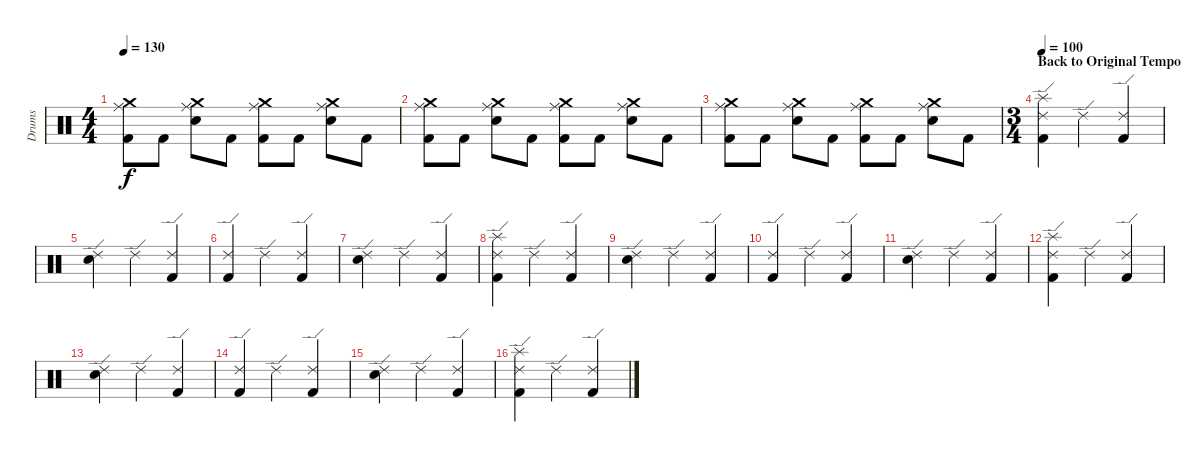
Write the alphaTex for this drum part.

\track ("Drums" "Drums") {instrument percussion}
\staff {score}
\articulation defaults
\ts (4 4)
\tempo 130
\clef neutral
\ks c
("Ride (middle)" "Crash medium (hit)" "Kick (hit) 2").8{dy f} "Kick (hit) 2".8 ("Ride (middle)" "Electric Snare (hit)" "Crash medium (hit)").8 "Kick (hit) 2".8 ("Ride (middle)" "Crash medium (hit)" "Kick (hit) 2").8 "Kick (hit) 2".8 ("Ride (middle)" "Electric Snare (hit)" "Crash medium (hit)").8 "Kick (hit) 2".8 |
("Ride (middle)" "Crash medium (hit)" "Kick (hit) 2").8 "Kick (hit) 2".8 ("Ride (middle)" "Electric Snare (hit)" "Crash medium (hit)").8 "Kick (hit) 2".8 ("Ride (middle)" "Crash medium (hit)" "Kick (hit) 2").8 "Kick (hit) 2".8 ("Ride (middle)" "Electric Snare (hit)" "Crash medium (hit)").8 "Kick (hit) 2".8 |
("Ride (middle)" "Crash medium (hit)" "Kick (hit) 2").8 "Kick (hit) 2".8 ("Ride (middle)" "Electric Snare (hit)" "Crash medium (hit)").8 "Kick (hit) 2".8 ("Ride (middle)" "Crash medium (hit)" "Kick (hit) 2").8 "Kick (hit) 2".8 ("Ride (middle)" "Electric Snare (hit)" "Crash medium (hit)").8 "Kick (hit) 2".8 |
\ts (3 4)
\section ("" "Back to Original Tempo")
\tempo 100
("Ride (edge) 2" "Splash (hit)" "Kick (hit) 2").4 "Ride (edge) 2".4 ("Ride (edge) 2" "Kick (hit) 2").4 |
("Ride (edge) 2" "Electric Snare (hit)").4 "Ride (edge) 2".4 ("Ride (edge) 2" "Kick (hit) 2").4 |
("Ride (edge) 2" "Kick (hit) 2").4 "Ride (edge) 2".4 ("Ride (edge) 2" "Kick (hit) 2").4 |
("Ride (edge) 2" "Electric Snare (hit)").4 "Ride (edge) 2".4 ("Ride (edge) 2" "Kick (hit) 2").4 |
("Ride (edge) 2" "Splash (hit)" "Kick (hit) 2").4 "Ride (edge) 2".4 ("Ride (edge) 2" "Kick (hit) 2").4 |
("Ride (edge) 2" "Electric Snare (hit)").4 "Ride (edge) 2".4 ("Ride (edge) 2" "Kick (hit) 2").4 |
("Ride (edge) 2" "Kick (hit) 2").4 "Ride (edge) 2".4 ("Ride (edge) 2" "Kick (hit) 2").4 |
("Ride (edge) 2" "Electric Snare (hit)").4 "Ride (edge) 2".4 ("Ride (edge) 2" "Kick (hit) 2").4 |
("Ride (edge) 2" "Splash (hit)" "Kick (hit) 2").4 "Ride (edge) 2".4 ("Ride (edge) 2" "Kick (hit) 2").4 |
("Ride (edge) 2" "Electric Snare (hit)").4 "Ride (edge) 2".4 ("Ride (edge) 2" "Kick (hit) 2").4 |
("Ride (edge) 2" "Kick (hit) 2").4 "Ride (edge) 2".4 ("Ride (edge) 2" "Kick (hit) 2").4 |
("Ride (edge) 2" "Electric Snare (hit)").4 "Ride (edge) 2".4 ("Ride (edge) 2" "Kick (hit) 2").4 |
("Ride (edge) 2" "Splash (hit)" "Kick (hit) 2").4 "Ride (edge) 2".4 ("Ride (edge) 2" "Kick (hit) 2").4
